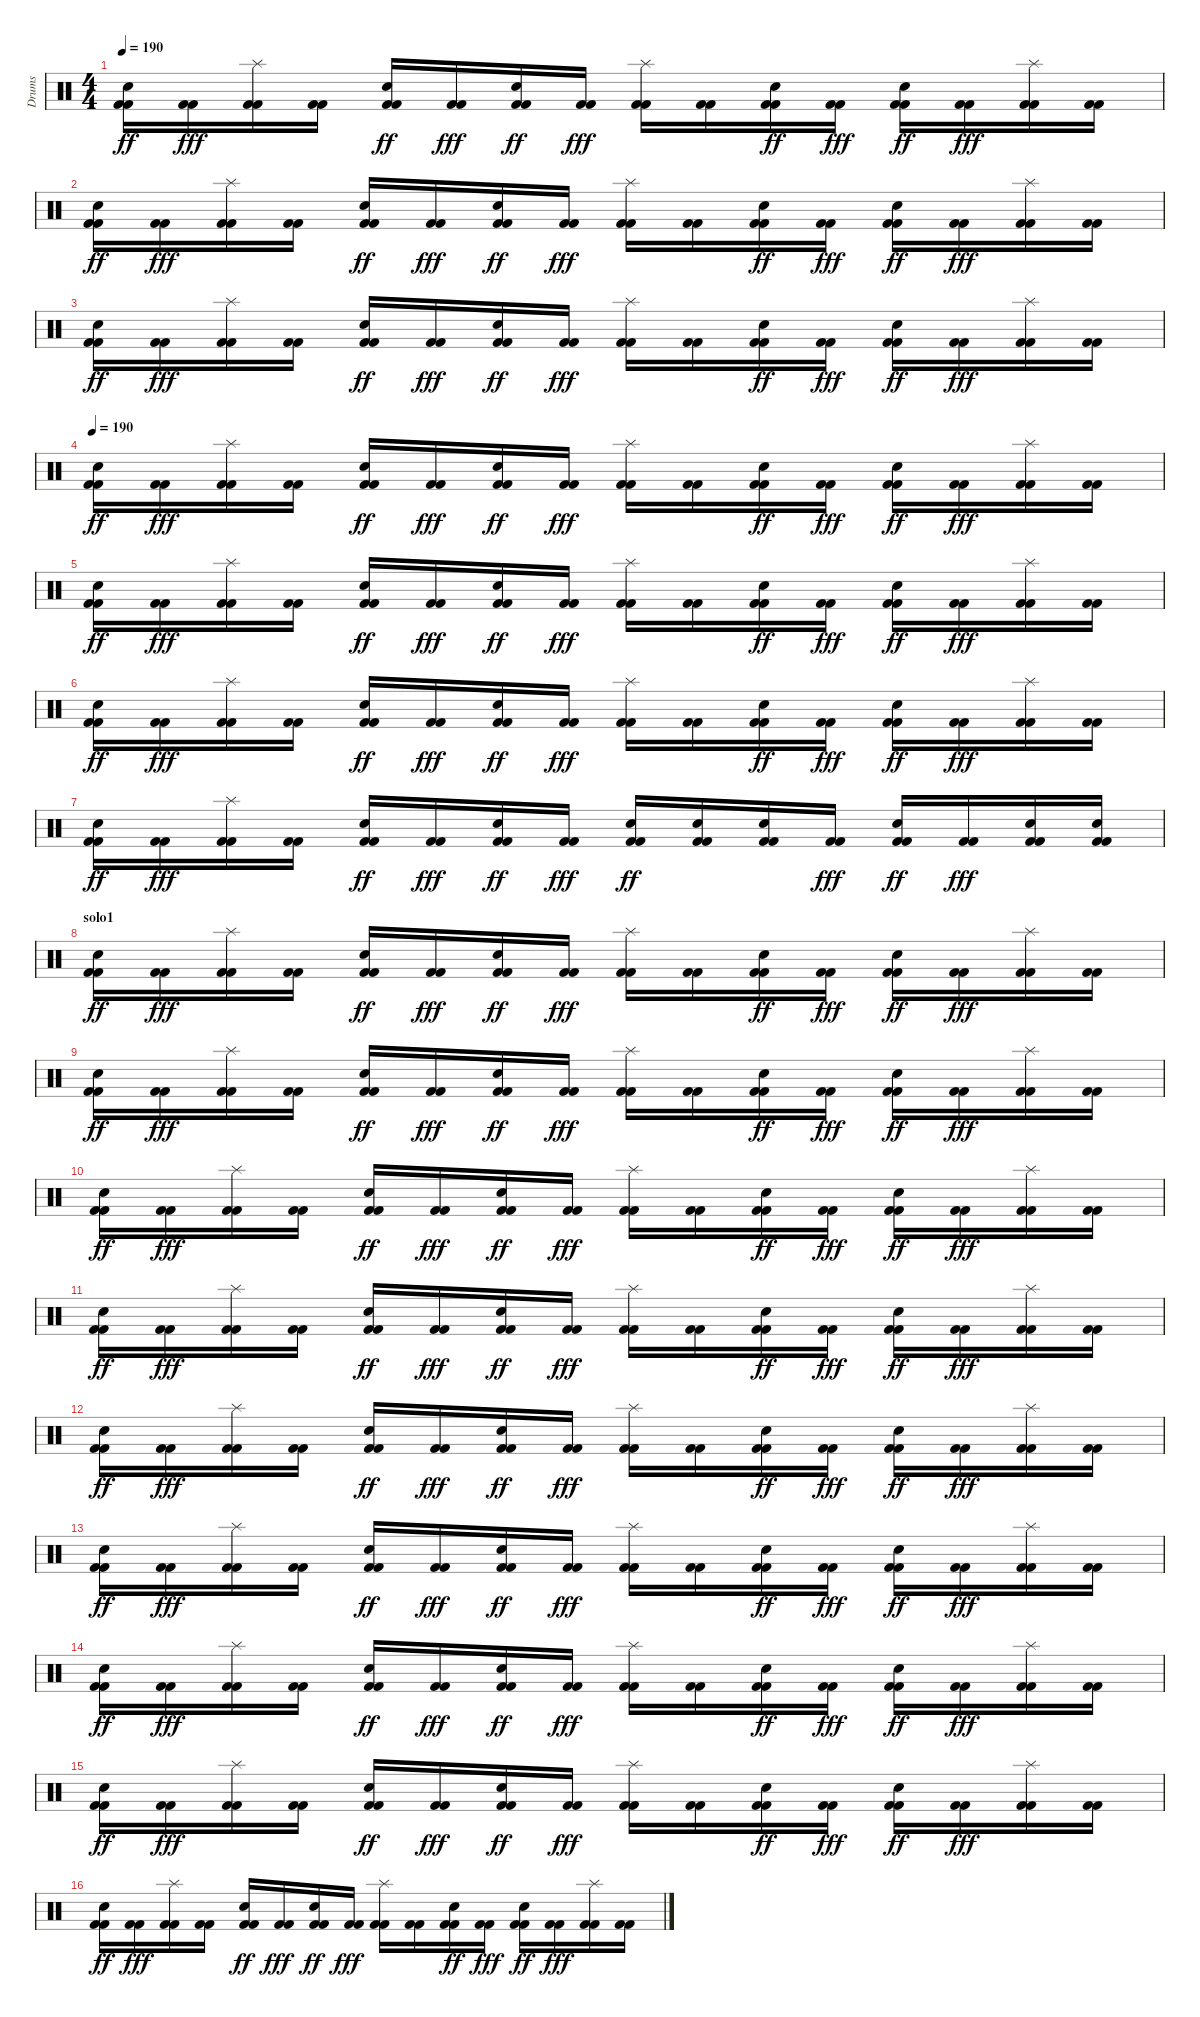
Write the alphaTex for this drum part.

\track ("Drums" "Drums") {instrument percussion}
\staff {score}
\articulation defaults
\ts (4 4)
\tempo 190
\clef neutral
\ks c
("Kick (hit) 2" "Kick (hit) 2" "Electric Snare (hit)").16{dy ff} ("Kick (hit) 2" "Kick (hit) 2").16{dy fff} ("Kick (hit) 2" "Kick (hit) 2" "Splash (hit)").16 ("Kick (hit) 2" "Kick (hit) 2").16 ("Kick (hit) 2" "Kick (hit) 2" "Electric Snare (hit)").16{dy ff} ("Kick (hit) 2" "Kick (hit) 2").16{dy fff} ("Kick (hit) 2" "Kick (hit) 2" "Electric Snare (hit)").16{dy ff} ("Kick (hit) 2" "Kick (hit) 2").16{dy fff} ("Kick (hit) 2" "Kick (hit) 2" "Splash (hit)").16 ("Kick (hit) 2" "Kick (hit) 2").16 ("Kick (hit) 2" "Kick (hit) 2" "Electric Snare (hit)").16{dy ff} ("Kick (hit) 2" "Kick (hit) 2").16{dy fff} ("Kick (hit) 2" "Kick (hit) 2" "Electric Snare (hit)").16{dy ff} ("Kick (hit) 2" "Kick (hit) 2").16{dy fff} ("Kick (hit) 2" "Kick (hit) 2" "Splash (hit)").16 ("Kick (hit) 2" "Kick (hit) 2").16 |
("Kick (hit) 2" "Kick (hit) 2" "Electric Snare (hit)").16{dy ff} ("Kick (hit) 2" "Kick (hit) 2").16{dy fff} ("Kick (hit) 2" "Kick (hit) 2" "Splash (hit)").16 ("Kick (hit) 2" "Kick (hit) 2").16 ("Kick (hit) 2" "Kick (hit) 2" "Electric Snare (hit)").16{dy ff} ("Kick (hit) 2" "Kick (hit) 2").16{dy fff} ("Kick (hit) 2" "Kick (hit) 2" "Electric Snare (hit)").16{dy ff} ("Kick (hit) 2" "Kick (hit) 2").16{dy fff} ("Kick (hit) 2" "Kick (hit) 2" "Splash (hit)").16 ("Kick (hit) 2" "Kick (hit) 2").16 ("Kick (hit) 2" "Kick (hit) 2" "Electric Snare (hit)").16{dy ff} ("Kick (hit) 2" "Kick (hit) 2").16{dy fff} ("Kick (hit) 2" "Kick (hit) 2" "Electric Snare (hit)").16{dy ff} ("Kick (hit) 2" "Kick (hit) 2").16{dy fff} ("Kick (hit) 2" "Kick (hit) 2" "Splash (hit)").16 ("Kick (hit) 2" "Kick (hit) 2").16 |
("Kick (hit) 2" "Kick (hit) 2" "Electric Snare (hit)").16{dy ff} ("Kick (hit) 2" "Kick (hit) 2").16{dy fff} ("Kick (hit) 2" "Kick (hit) 2" "Splash (hit)").16 ("Kick (hit) 2" "Kick (hit) 2").16 ("Kick (hit) 2" "Kick (hit) 2" "Electric Snare (hit)").16{dy ff} ("Kick (hit) 2" "Kick (hit) 2").16{dy fff} ("Kick (hit) 2" "Kick (hit) 2" "Electric Snare (hit)").16{dy ff} ("Kick (hit) 2" "Kick (hit) 2").16{dy fff} ("Kick (hit) 2" "Kick (hit) 2" "Splash (hit)").16 ("Kick (hit) 2" "Kick (hit) 2").16 ("Kick (hit) 2" "Kick (hit) 2" "Electric Snare (hit)").16{dy ff} ("Kick (hit) 2" "Kick (hit) 2").16{dy fff} ("Kick (hit) 2" "Kick (hit) 2" "Electric Snare (hit)").16{dy ff} ("Kick (hit) 2" "Kick (hit) 2").16{dy fff} ("Kick (hit) 2" "Kick (hit) 2" "Splash (hit)").16 ("Kick (hit) 2" "Kick (hit) 2").16 |
\tempo 190
("Kick (hit) 2" "Kick (hit) 2" "Electric Snare (hit)").16{dy ff} ("Kick (hit) 2" "Kick (hit) 2").16{dy fff} ("Kick (hit) 2" "Kick (hit) 2" "Splash (hit)").16 ("Kick (hit) 2" "Kick (hit) 2").16 ("Kick (hit) 2" "Kick (hit) 2" "Electric Snare (hit)").16{dy ff} ("Kick (hit) 2" "Kick (hit) 2").16{dy fff} ("Kick (hit) 2" "Kick (hit) 2" "Electric Snare (hit)").16{dy ff} ("Kick (hit) 2" "Kick (hit) 2").16{dy fff} ("Kick (hit) 2" "Kick (hit) 2" "Splash (hit)").16 ("Kick (hit) 2" "Kick (hit) 2").16 ("Kick (hit) 2" "Kick (hit) 2" "Electric Snare (hit)").16{dy ff} ("Kick (hit) 2" "Kick (hit) 2").16{dy fff} ("Kick (hit) 2" "Kick (hit) 2" "Electric Snare (hit)").16{dy ff} ("Kick (hit) 2" "Kick (hit) 2").16{dy fff} ("Kick (hit) 2" "Kick (hit) 2" "Splash (hit)").16 ("Kick (hit) 2" "Kick (hit) 2").16 |
("Kick (hit) 2" "Kick (hit) 2" "Electric Snare (hit)").16{dy ff} ("Kick (hit) 2" "Kick (hit) 2").16{dy fff} ("Kick (hit) 2" "Kick (hit) 2" "Splash (hit)").16 ("Kick (hit) 2" "Kick (hit) 2").16 ("Kick (hit) 2" "Kick (hit) 2" "Electric Snare (hit)").16{dy ff} ("Kick (hit) 2" "Kick (hit) 2").16{dy fff} ("Kick (hit) 2" "Kick (hit) 2" "Electric Snare (hit)").16{dy ff} ("Kick (hit) 2" "Kick (hit) 2").16{dy fff} ("Kick (hit) 2" "Kick (hit) 2" "Splash (hit)").16 ("Kick (hit) 2" "Kick (hit) 2").16 ("Kick (hit) 2" "Kick (hit) 2" "Electric Snare (hit)").16{dy ff} ("Kick (hit) 2" "Kick (hit) 2").16{dy fff} ("Kick (hit) 2" "Kick (hit) 2" "Electric Snare (hit)").16{dy ff} ("Kick (hit) 2" "Kick (hit) 2").16{dy fff} ("Kick (hit) 2" "Kick (hit) 2" "Splash (hit)").16 ("Kick (hit) 2" "Kick (hit) 2").16 |
("Kick (hit) 2" "Kick (hit) 2" "Electric Snare (hit)").16{dy ff} ("Kick (hit) 2" "Kick (hit) 2").16{dy fff} ("Kick (hit) 2" "Kick (hit) 2" "Splash (hit)").16 ("Kick (hit) 2" "Kick (hit) 2").16 ("Kick (hit) 2" "Kick (hit) 2" "Electric Snare (hit)").16{dy ff} ("Kick (hit) 2" "Kick (hit) 2").16{dy fff} ("Kick (hit) 2" "Kick (hit) 2" "Electric Snare (hit)").16{dy ff} ("Kick (hit) 2" "Kick (hit) 2").16{dy fff} ("Kick (hit) 2" "Kick (hit) 2" "Splash (hit)").16 ("Kick (hit) 2" "Kick (hit) 2").16 ("Kick (hit) 2" "Kick (hit) 2" "Electric Snare (hit)").16{dy ff} ("Kick (hit) 2" "Kick (hit) 2").16{dy fff} ("Kick (hit) 2" "Kick (hit) 2" "Electric Snare (hit)").16{dy ff} ("Kick (hit) 2" "Kick (hit) 2").16{dy fff} ("Kick (hit) 2" "Kick (hit) 2" "Splash (hit)").16 ("Kick (hit) 2" "Kick (hit) 2").16 |
("Kick (hit) 2" "Kick (hit) 2" "Electric Snare (hit)").16{dy ff} ("Kick (hit) 2" "Kick (hit) 2").16{dy fff} ("Kick (hit) 2" "Kick (hit) 2" "Splash (hit)").16 ("Kick (hit) 2" "Kick (hit) 2").16 ("Kick (hit) 2" "Kick (hit) 2" "Electric Snare (hit)").16{dy ff} ("Kick (hit) 2" "Kick (hit) 2").16{dy fff} ("Kick (hit) 2" "Kick (hit) 2" "Electric Snare (hit)").16{dy ff} ("Kick (hit) 2" "Kick (hit) 2").16{dy fff} ("Kick (hit) 2" "Kick (hit) 2" "Electric Snare (hit)").16{dy ff} ("Kick (hit) 2" "Kick (hit) 2" "Electric Snare (hit)").16 ("Kick (hit) 2" "Kick (hit) 2" "Electric Snare (hit)").16 ("Kick (hit) 2" "Kick (hit) 2").16{dy fff} ("Kick (hit) 2" "Kick (hit) 2" "Electric Snare (hit)").16{dy ff} ("Kick (hit) 2" "Kick (hit) 2").16{dy fff} ("Kick (hit) 2" "Kick (hit) 2" "Electric Snare (hit)").16 ("Kick (hit) 2" "Kick (hit) 2" "Electric Snare (hit)").16 |
\section ("" "solo1")
("Kick (hit) 2" "Kick (hit) 2" "Electric Snare (hit)").16{dy ff} ("Kick (hit) 2" "Kick (hit) 2").16{dy fff} ("Kick (hit) 2" "Kick (hit) 2" "Splash (hit)").16 ("Kick (hit) 2" "Kick (hit) 2").16 ("Kick (hit) 2" "Kick (hit) 2" "Electric Snare (hit)").16{dy ff} ("Kick (hit) 2" "Kick (hit) 2").16{dy fff} ("Kick (hit) 2" "Kick (hit) 2" "Electric Snare (hit)").16{dy ff} ("Kick (hit) 2" "Kick (hit) 2").16{dy fff} ("Kick (hit) 2" "Kick (hit) 2" "Splash (hit)").16 ("Kick (hit) 2" "Kick (hit) 2").16 ("Kick (hit) 2" "Kick (hit) 2" "Electric Snare (hit)").16{dy ff} ("Kick (hit) 2" "Kick (hit) 2").16{dy fff} ("Kick (hit) 2" "Kick (hit) 2" "Electric Snare (hit)").16{dy ff} ("Kick (hit) 2" "Kick (hit) 2").16{dy fff} ("Kick (hit) 2" "Kick (hit) 2" "Splash (hit)").16 ("Kick (hit) 2" "Kick (hit) 2").16 |
("Kick (hit) 2" "Kick (hit) 2" "Electric Snare (hit)").16{dy ff} ("Kick (hit) 2" "Kick (hit) 2").16{dy fff} ("Kick (hit) 2" "Kick (hit) 2" "Splash (hit)").16 ("Kick (hit) 2" "Kick (hit) 2").16 ("Kick (hit) 2" "Kick (hit) 2" "Electric Snare (hit)").16{dy ff} ("Kick (hit) 2" "Kick (hit) 2").16{dy fff} ("Kick (hit) 2" "Kick (hit) 2" "Electric Snare (hit)").16{dy ff} ("Kick (hit) 2" "Kick (hit) 2").16{dy fff} ("Kick (hit) 2" "Kick (hit) 2" "Splash (hit)").16 ("Kick (hit) 2" "Kick (hit) 2").16 ("Kick (hit) 2" "Kick (hit) 2" "Electric Snare (hit)").16{dy ff} ("Kick (hit) 2" "Kick (hit) 2").16{dy fff} ("Kick (hit) 2" "Kick (hit) 2" "Electric Snare (hit)").16{dy ff} ("Kick (hit) 2" "Kick (hit) 2").16{dy fff} ("Kick (hit) 2" "Kick (hit) 2" "Splash (hit)").16 ("Kick (hit) 2" "Kick (hit) 2").16 |
("Kick (hit) 2" "Kick (hit) 2" "Electric Snare (hit)").16{dy ff} ("Kick (hit) 2" "Kick (hit) 2").16{dy fff} ("Kick (hit) 2" "Kick (hit) 2" "Splash (hit)").16 ("Kick (hit) 2" "Kick (hit) 2").16 ("Kick (hit) 2" "Kick (hit) 2" "Electric Snare (hit)").16{dy ff} ("Kick (hit) 2" "Kick (hit) 2").16{dy fff} ("Kick (hit) 2" "Kick (hit) 2" "Electric Snare (hit)").16{dy ff} ("Kick (hit) 2" "Kick (hit) 2").16{dy fff} ("Kick (hit) 2" "Kick (hit) 2" "Splash (hit)").16 ("Kick (hit) 2" "Kick (hit) 2").16 ("Kick (hit) 2" "Kick (hit) 2" "Electric Snare (hit)").16{dy ff} ("Kick (hit) 2" "Kick (hit) 2").16{dy fff} ("Kick (hit) 2" "Kick (hit) 2" "Electric Snare (hit)").16{dy ff} ("Kick (hit) 2" "Kick (hit) 2").16{dy fff} ("Kick (hit) 2" "Kick (hit) 2" "Splash (hit)").16 ("Kick (hit) 2" "Kick (hit) 2").16 |
("Kick (hit) 2" "Kick (hit) 2" "Electric Snare (hit)").16{dy ff} ("Kick (hit) 2" "Kick (hit) 2").16{dy fff} ("Kick (hit) 2" "Kick (hit) 2" "Splash (hit)").16 ("Kick (hit) 2" "Kick (hit) 2").16 ("Kick (hit) 2" "Kick (hit) 2" "Electric Snare (hit)").16{dy ff} ("Kick (hit) 2" "Kick (hit) 2").16{dy fff} ("Kick (hit) 2" "Kick (hit) 2" "Electric Snare (hit)").16{dy ff} ("Kick (hit) 2" "Kick (hit) 2").16{dy fff} ("Kick (hit) 2" "Kick (hit) 2" "Splash (hit)").16 ("Kick (hit) 2" "Kick (hit) 2").16 ("Kick (hit) 2" "Kick (hit) 2" "Electric Snare (hit)").16{dy ff} ("Kick (hit) 2" "Kick (hit) 2").16{dy fff} ("Kick (hit) 2" "Kick (hit) 2" "Electric Snare (hit)").16{dy ff} ("Kick (hit) 2" "Kick (hit) 2").16{dy fff} ("Kick (hit) 2" "Kick (hit) 2" "Splash (hit)").16 ("Kick (hit) 2" "Kick (hit) 2").16 |
("Kick (hit) 2" "Kick (hit) 2" "Electric Snare (hit)").16{dy ff} ("Kick (hit) 2" "Kick (hit) 2").16{dy fff} ("Kick (hit) 2" "Kick (hit) 2" "Splash (hit)").16 ("Kick (hit) 2" "Kick (hit) 2").16 ("Kick (hit) 2" "Kick (hit) 2" "Electric Snare (hit)").16{dy ff} ("Kick (hit) 2" "Kick (hit) 2").16{dy fff} ("Kick (hit) 2" "Kick (hit) 2" "Electric Snare (hit)").16{dy ff} ("Kick (hit) 2" "Kick (hit) 2").16{dy fff} ("Kick (hit) 2" "Kick (hit) 2" "Splash (hit)").16 ("Kick (hit) 2" "Kick (hit) 2").16 ("Kick (hit) 2" "Kick (hit) 2" "Electric Snare (hit)").16{dy ff} ("Kick (hit) 2" "Kick (hit) 2").16{dy fff} ("Kick (hit) 2" "Kick (hit) 2" "Electric Snare (hit)").16{dy ff} ("Kick (hit) 2" "Kick (hit) 2").16{dy fff} ("Kick (hit) 2" "Kick (hit) 2" "Splash (hit)").16 ("Kick (hit) 2" "Kick (hit) 2").16 |
("Kick (hit) 2" "Kick (hit) 2" "Electric Snare (hit)").16{dy ff} ("Kick (hit) 2" "Kick (hit) 2").16{dy fff} ("Kick (hit) 2" "Kick (hit) 2" "Splash (hit)").16 ("Kick (hit) 2" "Kick (hit) 2").16 ("Kick (hit) 2" "Kick (hit) 2" "Electric Snare (hit)").16{dy ff} ("Kick (hit) 2" "Kick (hit) 2").16{dy fff} ("Kick (hit) 2" "Kick (hit) 2" "Electric Snare (hit)").16{dy ff} ("Kick (hit) 2" "Kick (hit) 2").16{dy fff} ("Kick (hit) 2" "Kick (hit) 2" "Splash (hit)").16 ("Kick (hit) 2" "Kick (hit) 2").16 ("Kick (hit) 2" "Kick (hit) 2" "Electric Snare (hit)").16{dy ff} ("Kick (hit) 2" "Kick (hit) 2").16{dy fff} ("Kick (hit) 2" "Kick (hit) 2" "Electric Snare (hit)").16{dy ff} ("Kick (hit) 2" "Kick (hit) 2").16{dy fff} ("Kick (hit) 2" "Kick (hit) 2" "Splash (hit)").16 ("Kick (hit) 2" "Kick (hit) 2").16 |
("Kick (hit) 2" "Kick (hit) 2" "Electric Snare (hit)").16{dy ff} ("Kick (hit) 2" "Kick (hit) 2").16{dy fff} ("Kick (hit) 2" "Kick (hit) 2" "Splash (hit)").16 ("Kick (hit) 2" "Kick (hit) 2").16 ("Kick (hit) 2" "Kick (hit) 2" "Electric Snare (hit)").16{dy ff} ("Kick (hit) 2" "Kick (hit) 2").16{dy fff} ("Kick (hit) 2" "Kick (hit) 2" "Electric Snare (hit)").16{dy ff} ("Kick (hit) 2" "Kick (hit) 2").16{dy fff} ("Kick (hit) 2" "Kick (hit) 2" "Splash (hit)").16 ("Kick (hit) 2" "Kick (hit) 2").16 ("Kick (hit) 2" "Kick (hit) 2" "Electric Snare (hit)").16{dy ff} ("Kick (hit) 2" "Kick (hit) 2").16{dy fff} ("Kick (hit) 2" "Kick (hit) 2" "Electric Snare (hit)").16{dy ff} ("Kick (hit) 2" "Kick (hit) 2").16{dy fff} ("Kick (hit) 2" "Kick (hit) 2" "Splash (hit)").16 ("Kick (hit) 2" "Kick (hit) 2").16 |
("Kick (hit) 2" "Kick (hit) 2" "Electric Snare (hit)").16{dy ff} ("Kick (hit) 2" "Kick (hit) 2").16{dy fff} ("Kick (hit) 2" "Kick (hit) 2" "Splash (hit)").16 ("Kick (hit) 2" "Kick (hit) 2").16 ("Kick (hit) 2" "Kick (hit) 2" "Electric Snare (hit)").16{dy ff} ("Kick (hit) 2" "Kick (hit) 2").16{dy fff} ("Kick (hit) 2" "Kick (hit) 2" "Electric Snare (hit)").16{dy ff} ("Kick (hit) 2" "Kick (hit) 2").16{dy fff} ("Kick (hit) 2" "Kick (hit) 2" "Splash (hit)").16 ("Kick (hit) 2" "Kick (hit) 2").16 ("Kick (hit) 2" "Kick (hit) 2" "Electric Snare (hit)").16{dy ff} ("Kick (hit) 2" "Kick (hit) 2").16{dy fff} ("Kick (hit) 2" "Kick (hit) 2" "Electric Snare (hit)").16{dy ff} ("Kick (hit) 2" "Kick (hit) 2").16{dy fff} ("Kick (hit) 2" "Kick (hit) 2" "Splash (hit)").16 ("Kick (hit) 2" "Kick (hit) 2").16 |
("Kick (hit) 2" "Kick (hit) 2" "Electric Snare (hit)").16{dy ff} ("Kick (hit) 2" "Kick (hit) 2").16{dy fff} ("Kick (hit) 2" "Kick (hit) 2" "Splash (hit)").16 ("Kick (hit) 2" "Kick (hit) 2").16 ("Kick (hit) 2" "Kick (hit) 2" "Electric Snare (hit)").16{dy ff} ("Kick (hit) 2" "Kick (hit) 2").16{dy fff} ("Kick (hit) 2" "Kick (hit) 2" "Electric Snare (hit)").16{dy ff} ("Kick (hit) 2" "Kick (hit) 2").16{dy fff} ("Kick (hit) 2" "Kick (hit) 2" "Splash (hit)").16 ("Kick (hit) 2" "Kick (hit) 2").16 ("Kick (hit) 2" "Kick (hit) 2" "Electric Snare (hit)").16{dy ff} ("Kick (hit) 2" "Kick (hit) 2").16{dy fff} ("Kick (hit) 2" "Kick (hit) 2" "Electric Snare (hit)").16{dy ff} ("Kick (hit) 2" "Kick (hit) 2").16{dy fff} ("Kick (hit) 2" "Kick (hit) 2" "Splash (hit)").16 ("Kick (hit) 2" "Kick (hit) 2").16
